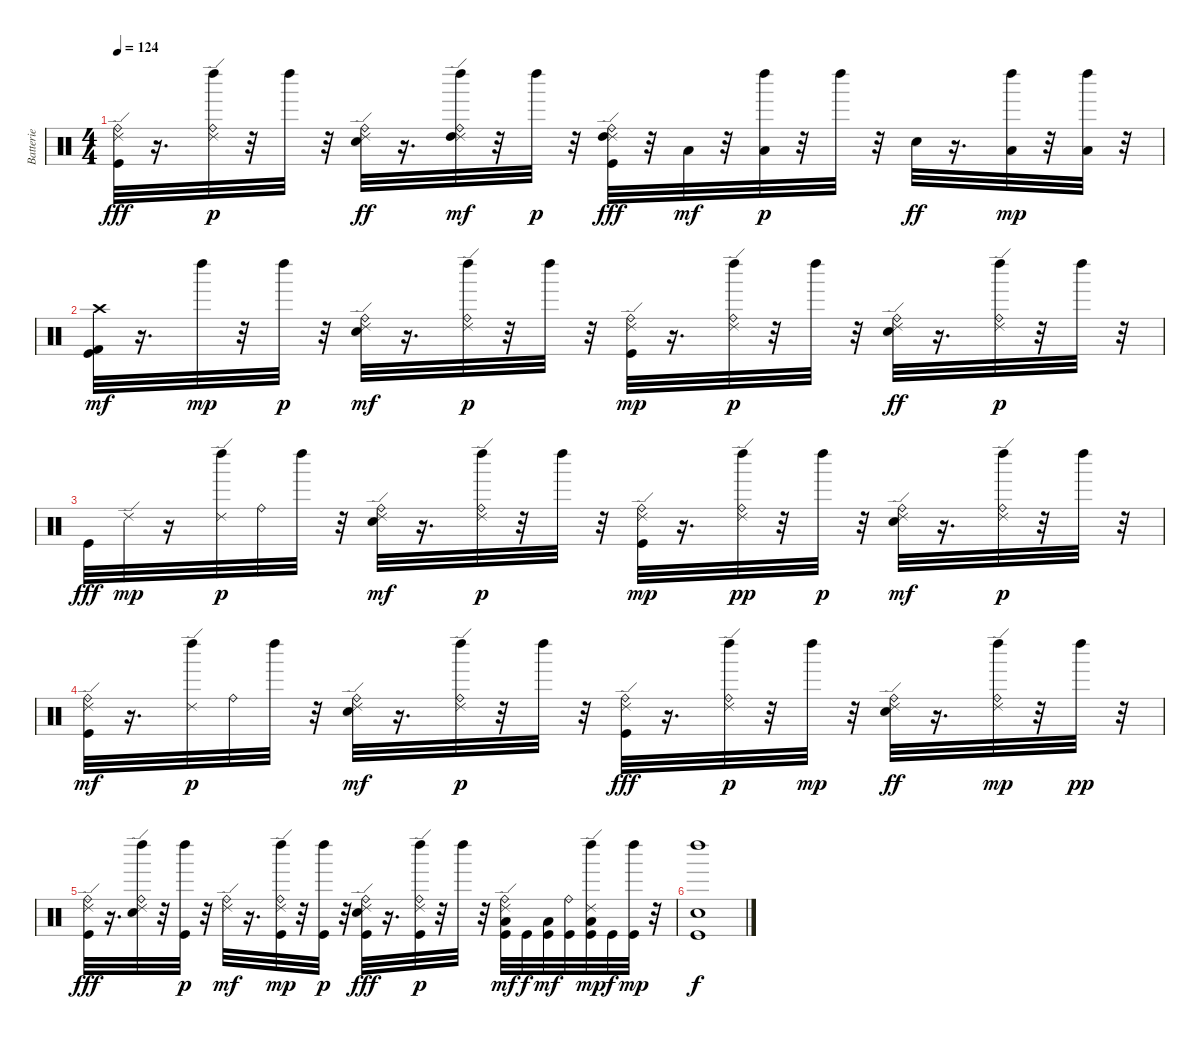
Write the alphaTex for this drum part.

\track ("Batterie" "Batterie") {instrument percussion}
\staff {score}
\articulation defaults
\ts (4 4)
\tempo 124
\clef neutral
\ks c
("Ride (edge) 2" "Ride (bell)" "Kick (hit)").32{dy fff} r.16{d} ("Ride (edge) 2" "Ride (bell)" "Left Maraca (hit)").32{dy p} r.32 "Left Maraca (hit)".32 r.32 ("Ride (bell)" "Ride (edge) 2" "Electric Snare (hit)").32{dy ff} r.16{d} ("Ride (edge) 2" "Ride (bell)" "Left Maraca (hit)" "High Tom (hit)").32{dy mf} r.32 "Left Maraca (hit)".32{dy p} r.32 ("Ride (bell)" "Ride (edge) 2" "High Tom (hit)" "Kick (hit)").32{dy fff} r.32 "Low Tom (hit)".32{dy mf} r.32 ("Low Floor Tom (hit)" "Left Maraca (hit)").32{dy p} r.32 "Left Maraca (hit)".32 r.32 "Electric Snare (hit)".32{dy ff} r.16{d} ("Left Maraca (hit)" "Low Tom (hit)").32{dy mp} r.32 ("Left Maraca (hit)" "Low Floor Tom (hit)").32 r.32 |
("Kick (hit)" "Kick (hit) 2" "Crash high (hit)").32{dy mf} r.16{d} "Left Maraca (hit)".32{dy mp} r.32 "Left Maraca (hit)".32{dy p} r.32 ("Electric Snare (hit)" "Ride (bell)" "Ride (edge) 2").32{dy mf} r.16{d} ("Left Maraca (hit)" "Ride (bell)" "Ride (edge) 2").32{dy p} r.32 "Left Maraca (hit)".32 r.32 ("Kick (hit)" "Ride (bell)" "Ride (edge) 2").32{dy mp} r.16{d} ("Left Maraca (hit)" "Ride (edge) 2" "Ride (bell)").32{dy p} r.32 "Left Maraca (hit)".32 r.32 ("Ride (bell)" "Ride (edge) 2" "Electric Snare (hit)").32{dy ff} r.16{d} ("Left Maraca (hit)" "Ride (edge) 2" "Ride (bell)").32{dy p} r.32 "Left Maraca (hit)".32 r.32 |
"Kick (hit)".32{dy fff} "Ride (edge) 2".32{dy mp} r.16 ("Left Maraca (hit)" "Ride (edge) 2").32{dy p} "Ride (bell)".32 "Left Maraca (hit)".32 r.32 ("Electric Snare (hit)" "Ride (bell)" "Ride (edge) 2").32{dy mf} r.16{d} ("Left Maraca (hit)" "Ride (edge) 2" "Ride (bell)").32{dy p} r.32 "Left Maraca (hit)".32 r.32 ("Kick (hit)" "Ride (bell)" "Ride (edge) 2").32{dy mp} r.16{d} ("Ride (edge) 2" "Left Maraca (hit)" "Ride (bell)").32{dy pp} r.32 "Left Maraca (hit)".32{dy p} r.32 ("Electric Snare (hit)" "Ride (bell)" "Ride (edge) 2").32{dy mf} r.16{d} ("Left Maraca (hit)" "Ride (edge) 2" "Ride (bell)").32{dy p} r.32 "Left Maraca (hit)".32 r.32 |
("Kick (hit)" "Ride (bell)" "Ride (edge) 2").32{dy mf} r.16{d} ("Left Maraca (hit)" "Ride (edge) 2").32{dy p} "Ride (bell)".32 "Left Maraca (hit)".32 r.32 ("Electric Snare (hit)" "Ride (bell)" "Ride (edge) 2").32{dy mf} r.16{d} ("Ride (edge) 2" "Left Maraca (hit)" "Ride (bell)").32{dy p} r.32 "Left Maraca (hit)".32 r.32 ("Ride (bell)" "Ride (edge) 2" "Kick (hit)").32{dy fff} r.16{d} ("Ride (bell)" "Ride (edge) 2" "Left Maraca (hit)").32{dy p} r.32 "Left Maraca (hit)".32{dy mp} r.32 ("Ride (bell)" "Ride (edge) 2" "Electric Snare (hit)").32{dy ff} r.16{d} ("Ride (edge) 2" "Ride (bell)" "Left Maraca (hit)").32{dy mp} r.32 "Left Maraca (hit)".32{dy pp} r.32 |
("Ride (bell)" "Ride (edge) 2" "Kick (hit)").32{dy fff} r.16{d} ("Ride (edge) 2" "Ride (bell)" "Left Maraca (hit)" "Electric Snare (hit)").32 r.32 ("Left Maraca (hit)" "Kick (hit)").32{dy p} r.32 ("Ride (bell)" "Ride (edge) 2").32{dy mf} r.16{d} ("Ride (edge) 2" "Ride (bell)" "Kick (hit)" "Left Maraca (hit)").32{dy mp} r.32 ("Left Maraca (hit)" "Kick (hit)").32{dy p} r.32 ("Ride (bell)" "Ride (edge) 2" "Electric Snare (hit)" "Kick (hit)").32{dy fff} r.16{d} ("Ride (bell)" "Ride (edge) 2" "Left Maraca (hit)" "Kick (hit)").32{dy p} r.32 "Left Maraca (hit)".32 r.32 ("Ride (bell)" "Ride (edge) 2" "Low Tom (hit)" "Kick (hit)").32{dy mf} "Kick (hit)".32{dy f} ("Low Tom (hit)" "Kick (hit)").32{dy mf} ("Ride (bell)" "Kick (hit)").32 ("Ride (edge) 2" "Low Floor Tom (hit)" "Left Maraca (hit)" "Kick (hit)").32{dy mp} "Kick (hit)".32{dy f} ("Left Maraca (hit)" "Kick (hit)").32{dy mp} r.32 |
("Left Maraca (hit)" "Snare (hit) 2" "Kick (hit)").1{dy f}
